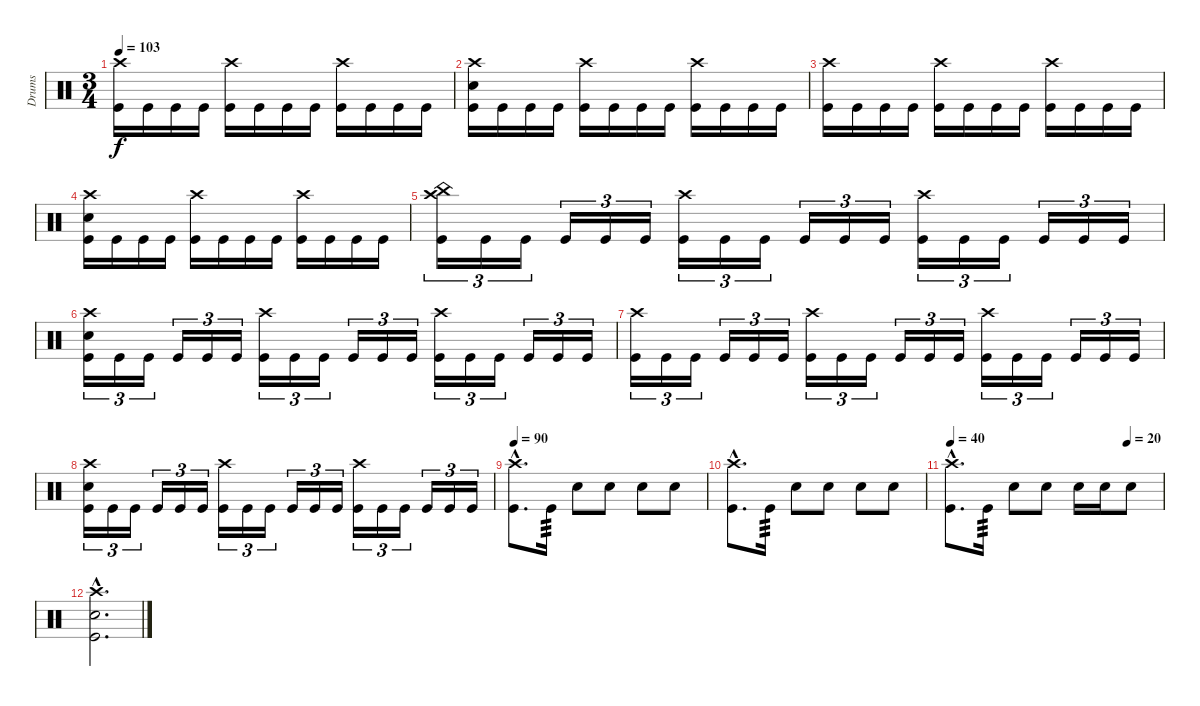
\track ("Drums" "Drums") {instrument percussion}
\staff {score}
\articulation defaults
\ts (3 4)
\tempo 103
\clef neutral
\ks c
("Crash high (hit)" "Kick (hit)").16{dy f} "Kick (hit)".16 "Kick (hit)".16 "Kick (hit)".16 ("Crash high (hit)" "Kick (hit)").16 "Kick (hit)".16 "Kick (hit)".16 "Kick (hit)".16 ("Crash high (hit)" "Kick (hit)").16 "Kick (hit)".16 "Kick (hit)".16 "Kick (hit)".16 |
("Crash high (hit)" "Snare (hit) 2" "Kick (hit)").16 "Kick (hit)".16 "Kick (hit)".16 "Kick (hit)".16 ("Crash high (hit)" "Kick (hit)").16 "Kick (hit)".16 "Kick (hit)".16 "Kick (hit)".16 ("Crash high (hit)" "Kick (hit)").16 "Kick (hit)".16 "Kick (hit)".16 "Kick (hit)".16 |
("Crash high (hit)" "Kick (hit)").16 "Kick (hit)".16 "Kick (hit)".16 "Kick (hit)".16 ("Crash high (hit)" "Kick (hit)").16 "Kick (hit)".16 "Kick (hit)".16 "Kick (hit)".16 ("Crash high (hit)" "Kick (hit)").16 "Kick (hit)".16 "Kick (hit)".16 "Kick (hit)".16 |
("Crash high (hit)" "Snare (hit) 2" "Kick (hit)").16 "Kick (hit)".16 "Kick (hit)".16 "Kick (hit)".16 ("Crash high (hit)" "Kick (hit)").16 "Kick (hit)".16 "Kick (hit)".16 "Kick (hit)".16 ("Crash high (hit)" "Kick (hit)").16 "Kick (hit)".16 "Kick (hit)".16 "Kick (hit)".16 |
("Crash high (hit)" "China (hit)" "Kick (hit)").16{tu (3 2)} "Kick (hit)".16{tu (3 2)} "Kick (hit)".16{tu (3 2)} "Kick (hit)".16{tu (3 2)} "Kick (hit)".16{tu (3 2)} "Kick (hit)".16{tu (3 2)} ("Crash high (hit)" "Kick (hit)").16{tu (3 2)} "Kick (hit)".16{tu (3 2)} "Kick (hit)".16{tu (3 2)} "Kick (hit)".16{tu (3 2)} "Kick (hit)".16{tu (3 2)} "Kick (hit)".16{tu (3 2)} ("Crash high (hit)" "Kick (hit)").16{tu (3 2)} "Kick (hit)".16{tu (3 2)} "Kick (hit)".16{tu (3 2)} "Kick (hit)".16{tu (3 2)} "Kick (hit)".16{tu (3 2)} "Kick (hit)".16{tu (3 2)} |
("Crash high (hit)" "Snare (hit) 2" "Kick (hit)").16{tu (3 2)} "Kick (hit)".16{tu (3 2)} "Kick (hit)".16{tu (3 2)} "Kick (hit)".16{tu (3 2)} "Kick (hit)".16{tu (3 2)} "Kick (hit)".16{tu (3 2)} ("Crash high (hit)" "Kick (hit)").16{tu (3 2)} "Kick (hit)".16{tu (3 2)} "Kick (hit)".16{tu (3 2)} "Kick (hit)".16{tu (3 2)} "Kick (hit)".16{tu (3 2)} "Kick (hit)".16{tu (3 2)} ("Crash high (hit)" "Kick (hit)").16{tu (3 2)} "Kick (hit)".16{tu (3 2)} "Kick (hit)".16{tu (3 2)} "Kick (hit)".16{tu (3 2)} "Kick (hit)".16{tu (3 2)} "Kick (hit)".16{tu (3 2)} |
("Crash high (hit)" "Kick (hit)").16{tu (3 2)} "Kick (hit)".16{tu (3 2)} "Kick (hit)".16{tu (3 2)} "Kick (hit)".16{tu (3 2)} "Kick (hit)".16{tu (3 2)} "Kick (hit)".16{tu (3 2)} ("Crash high (hit)" "Kick (hit)").16{tu (3 2)} "Kick (hit)".16{tu (3 2)} "Kick (hit)".16{tu (3 2)} "Kick (hit)".16{tu (3 2)} "Kick (hit)".16{tu (3 2)} "Kick (hit)".16{tu (3 2)} ("Crash high (hit)" "Kick (hit)").16{tu (3 2)} "Kick (hit)".16{tu (3 2)} "Kick (hit)".16{tu (3 2)} "Kick (hit)".16{tu (3 2)} "Kick (hit)".16{tu (3 2)} "Kick (hit)".16{tu (3 2)} |
("Crash high (hit)" "Snare (hit) 2" "Kick (hit)").16{tu (3 2)} "Kick (hit)".16{tu (3 2)} "Kick (hit)".16{tu (3 2)} "Kick (hit)".16{tu (3 2)} "Kick (hit)".16{tu (3 2)} "Kick (hit)".16{tu (3 2)} ("Crash high (hit)" "Kick (hit)").16{tu (3 2)} "Kick (hit)".16{tu (3 2)} "Kick (hit)".16{tu (3 2)} "Kick (hit)".16{tu (3 2)} "Kick (hit)".16{tu (3 2)} "Kick (hit)".16{tu (3 2)} ("Crash high (hit)" "Kick (hit)").16{tu (3 2)} "Kick (hit)".16{tu (3 2)} "Kick (hit)".16{tu (3 2)} "Kick (hit)".16{tu (3 2)} "Kick (hit)".16{tu (3 2)} "Kick (hit)".16{tu (3 2)} |
\tempo 90
("Crash high (hit)"{hac} "Kick (hit)"{hac}).8{d} "Kick (hit)".16{tp 3} "Snare (hit) 2".8 "Snare (hit) 2".8 "Snare (hit) 2".8 "Snare (hit) 2".8 |
("Crash high (hit)"{hac} "Kick (hit)"{hac}).8{d} "Kick (hit)".16{tp 3} "Snare (hit) 2".8 "Snare (hit) 2".8 "Snare (hit) 2".8 "Snare (hit) 2".8 |
\tempo 40
\tempo (20 0.8333333333333334)
("Crash high (hit)"{hac} "Kick (hit)"{hac}).8{d} "Kick (hit)".16{tp 3} "Snare (hit) 2".8 "Snare (hit) 2".8 "Snare (hit) 2".16 "Snare (hit) 2".16 "Snare (hit) 2".8 |
("Crash high (hit)"{hac} "Snare (hit) 2"{hac} "Kick (hit)"{hac}).2{d}
